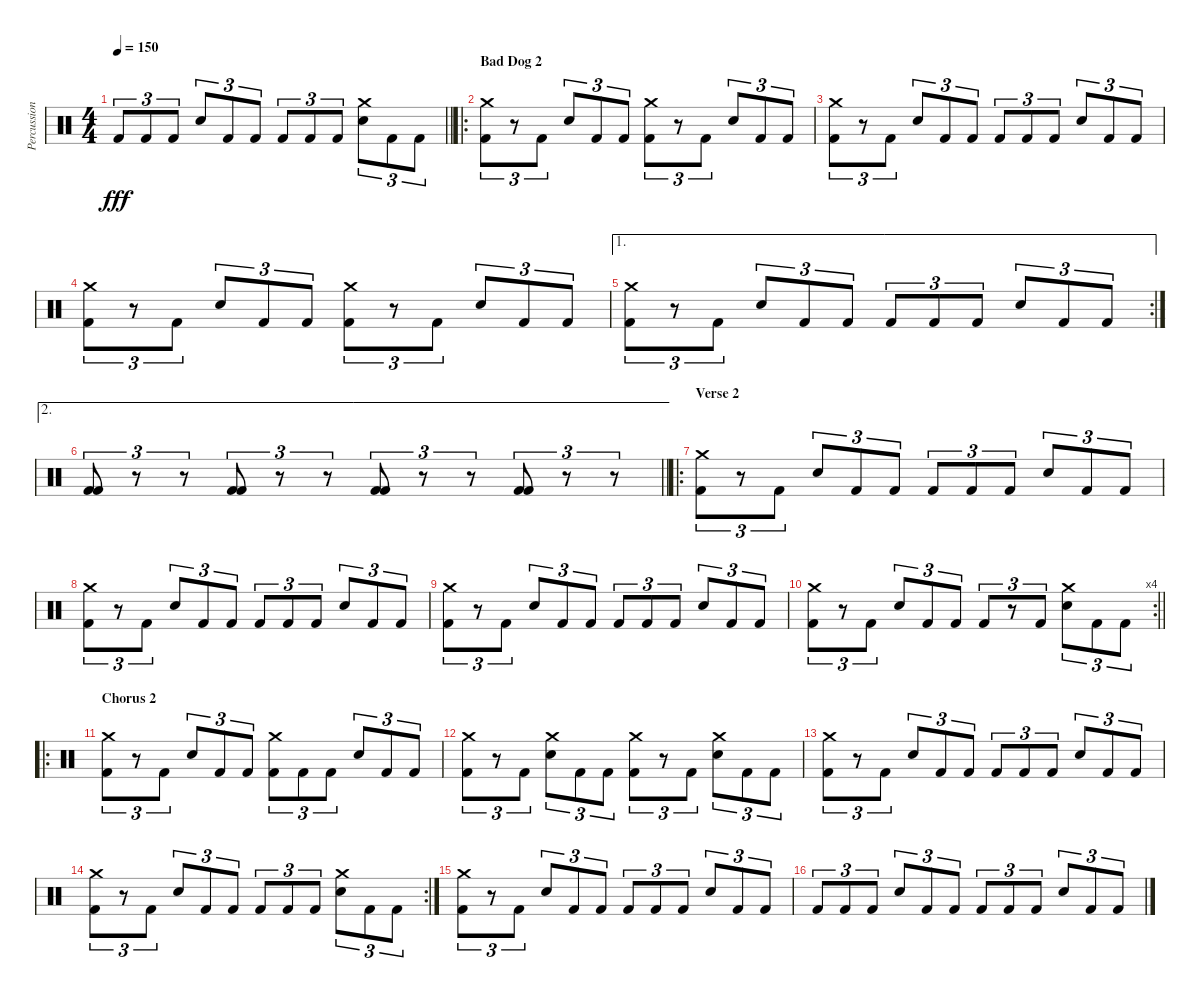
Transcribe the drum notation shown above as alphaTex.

\track ("Percussion" "Percussion") {instrument percussion}
\staff {score}
\articulation defaults
\ts (4 4)
\tempo 150
\clef neutral
\barLineRight lightlight
\ks c "Kick (hit) 2".8{tu (3 2) dy fff} "Kick (hit) 2".8{tu (3 2)} "Kick (hit) 2".8{tu (3 2)} "Snare (hit) 2".8{tu (3 2)} "Kick (hit) 2".8{tu (3 2)} "Kick (hit) 2".8{tu (3 2)} "Kick (hit) 2".8{tu (3 2)} "Kick (hit) 2".8{tu (3 2)} "Kick (hit) 2".8{tu (3 2)}
("Crash medium (hit)" "Snare (hit) 2").8{tu (3 2)} "Kick (hit) 2".8{tu (3 2)} "Kick (hit) 2".8{tu (3 2)} |
\ro
\section ("" "Bad Dog 2")
("Crash medium (hit)" "Kick (hit) 2").8{tu (3 2)} r.8{tu (3 2)} "Kick (hit) 2".8{tu (3 2)} "Snare (hit) 2".8{tu (3 2)} "Kick (hit) 2".8{tu (3 2)} "Kick (hit) 2".8{tu (3 2)} ("Crash medium (hit)" "Kick (hit) 2").8{tu (3 2)} r.8{tu (3 2)} "Kick (hit) 2".8{tu (3 2)} "Snare (hit) 2".8{tu (3 2)} "Kick (hit) 2".8{tu (3 2)} "Kick (hit) 2".8{tu (3 2)} |
("Crash medium (hit)" "Kick (hit) 2").8{tu (3 2)} r.8{tu (3 2)} "Kick (hit) 2".8{tu (3 2)} "Snare (hit) 2".8{tu (3 2)} "Kick (hit) 2".8{tu (3 2)} "Kick (hit) 2".8{tu (3 2)} "Kick (hit) 2".8{tu (3 2)} "Kick (hit) 2".8{tu (3 2)} "Kick (hit) 2".8{tu (3 2)} "Snare (hit) 2".8{tu (3 2)} "Kick (hit) 2".8{tu (3 2)} "Kick (hit) 2".8{tu (3 2)} |
("Crash medium (hit)" "Kick (hit) 2").8{tu (3 2)} r.8{tu (3 2)} "Kick (hit) 2".8{tu (3 2)} "Snare (hit) 2".8{tu (3 2)} "Kick (hit) 2".8{tu (3 2)} "Kick (hit) 2".8{tu (3 2)} ("Crash medium (hit)" "Kick (hit) 2").8{tu (3 2)} r.8{tu (3 2)} "Kick (hit) 2".8{tu (3 2)} "Snare (hit) 2".8{tu (3 2)} "Kick (hit) 2".8{tu (3 2)} "Kick (hit) 2".8{tu (3 2)} |
\ae 1
\rc 2
("Crash medium (hit)" "Kick (hit) 2").8{tu (3 2)} r.8{tu (3 2)} "Kick (hit) 2".8{tu (3 2)} "Snare (hit) 2".8{tu (3 2)} "Kick (hit) 2".8{tu (3 2)} "Kick (hit) 2".8{tu (3 2)} "Kick (hit) 2".8{tu (3 2)} "Kick (hit) 2".8{tu (3 2)} "Kick (hit) 2".8{tu (3 2)} "Snare (hit) 2".8{tu (3 2)} "Kick (hit) 2".8{tu (3 2)} "Kick (hit) 2".8{tu (3 2)} |
\ae 2
\barLineRight lightlight
("Kick (hit) 2" "Kick (hit) 2").8{tu (3 2)} r.8{tu (3 2)} r.8{tu (3 2)} ("Kick (hit) 2" "Kick (hit) 2").8{tu (3 2)} r.8{tu (3 2)} r.8{tu (3 2)} ("Kick (hit) 2" "Kick (hit) 2").8{tu (3 2)} r.8{tu (3 2)} r.8{tu (3 2)} ("Kick (hit) 2" "Kick (hit) 2").8{tu (3 2)} r.8{tu (3 2)} r.8{tu (3 2)} |
\ro
\section ("" "Verse 2")
("Crash medium (hit)" "Kick (hit) 2").8{tu (3 2)} r.8{tu (3 2)} "Kick (hit) 2".8{tu (3 2)} "Snare (hit) 2".8{tu (3 2)} "Kick (hit) 2".8{tu (3 2)} "Kick (hit) 2".8{tu (3 2)} "Kick (hit) 2".8{tu (3 2)} "Kick (hit) 2".8{tu (3 2)} "Kick (hit) 2".8{tu (3 2)} "Snare (hit) 2".8{tu (3 2)} "Kick (hit) 2".8{tu (3 2)} "Kick (hit) 2".8{tu (3 2)} |
("Crash medium (hit)" "Kick (hit) 2").8{tu (3 2)} r.8{tu (3 2)} "Kick (hit) 2".8{tu (3 2)} "Snare (hit) 2".8{tu (3 2)} "Kick (hit) 2".8{tu (3 2)} "Kick (hit) 2".8{tu (3 2)} "Kick (hit) 2".8{tu (3 2)} "Kick (hit) 2".8{tu (3 2)} "Kick (hit) 2".8{tu (3 2)} "Snare (hit) 2".8{tu (3 2)} "Kick (hit) 2".8{tu (3 2)} "Kick (hit) 2".8{tu (3 2)} |
("Crash medium (hit)" "Kick (hit) 2").8{tu (3 2)} r.8{tu (3 2)} "Kick (hit) 2".8{tu (3 2)} "Snare (hit) 2".8{tu (3 2)} "Kick (hit) 2".8{tu (3 2)} "Kick (hit) 2".8{tu (3 2)} "Kick (hit) 2".8{tu (3 2)} "Kick (hit) 2".8{tu (3 2)} "Kick (hit) 2".8{tu (3 2)} "Snare (hit) 2".8{tu (3 2)} "Kick (hit) 2".8{tu (3 2)} "Kick (hit) 2".8{tu (3 2)} |
\rc 4
\barLineRight lightlight
("Crash medium (hit)" "Kick (hit) 2").8{tu (3 2)} r.8{tu (3 2)} "Kick (hit) 2".8{tu (3 2)} "Snare (hit) 2".8{tu (3 2)} "Kick (hit) 2".8{tu (3 2)} "Kick (hit) 2".8{tu (3 2)} "Kick (hit) 2".8{tu (3 2)} r.8{tu (3 2)} "Kick (hit) 2".8{tu (3 2)} ("Crash medium (hit)" "Snare (hit) 2").8{tu (3 2)} "Kick (hit) 2".8{tu (3 2)} "Kick (hit) 2".8{tu (3 2)} |
\ro
\section ("" "Chorus 2")
("Crash medium (hit)" "Kick (hit) 2").8{tu (3 2)} r.8{tu (3 2)} "Kick (hit) 2".8{tu (3 2)} "Snare (hit) 2".8{tu (3 2)} "Kick (hit) 2".8{tu (3 2)} "Kick (hit) 2".8{tu (3 2)} ("Crash medium (hit)" "Kick (hit) 2").8{tu (3 2)} "Kick (hit) 2".8{tu (3 2)} "Kick (hit) 2".8{tu (3 2)} "Snare (hit) 2".8{tu (3 2)} "Kick (hit) 2".8{tu (3 2)} "Kick (hit) 2".8{tu (3 2)} |
("Crash medium (hit)" "Kick (hit) 2").8{tu (3 2)} r.8{tu (3 2)} "Kick (hit) 2".8{tu (3 2)} ("Crash medium (hit)" "Snare (hit) 2").8{tu (3 2)} "Kick (hit) 2".8{tu (3 2)} "Kick (hit) 2".8{tu (3 2)} ("Crash medium (hit)" "Kick (hit) 2").8{tu (3 2)} r.8{tu (3 2)} "Kick (hit) 2".8{tu (3 2)} ("Crash medium (hit)" "Snare (hit) 2").8{tu (3 2)} "Kick (hit) 2".8{tu (3 2)} "Kick (hit) 2".8{tu (3 2)} |
("Crash medium (hit)" "Kick (hit) 2").8{tu (3 2)} r.8{tu (3 2)} "Kick (hit) 2".8{tu (3 2)} "Snare (hit) 2".8{tu (3 2)} "Kick (hit) 2".8{tu (3 2)} "Kick (hit) 2".8{tu (3 2)} "Kick (hit) 2".8{tu (3 2)} "Kick (hit) 2".8{tu (3 2)} "Kick (hit) 2".8{tu (3 2)} "Snare (hit) 2".8{tu (3 2)} "Kick (hit) 2".8{tu (3 2)} "Kick (hit) 2".8{tu (3 2)} |
\rc 2
("Crash medium (hit)" "Kick (hit) 2").8{tu (3 2)} r.8{tu (3 2)} "Kick (hit) 2".8{tu (3 2)} "Snare (hit) 2".8{tu (3 2)} "Kick (hit) 2".8{tu (3 2)} "Kick (hit) 2".8{tu (3 2)} "Kick (hit) 2".8{tu (3 2)} "Kick (hit) 2".8{tu (3 2)} "Kick (hit) 2".8{tu (3 2)} ("Crash medium (hit)" "Snare (hit) 2").8{tu (3 2)} "Kick (hit) 2".8{tu (3 2)} "Kick (hit) 2".8{tu (3 2)} |
("Crash medium (hit)" "Kick (hit) 2").8{tu (3 2)} r.8{tu (3 2)} "Kick (hit) 2".8{tu (3 2)} "Snare (hit) 2".8{tu (3 2)} "Kick (hit) 2".8{tu (3 2)} "Kick (hit) 2".8{tu (3 2)} "Kick (hit) 2".8{tu (3 2)} "Kick (hit) 2".8{tu (3 2)} "Kick (hit) 2".8{tu (3 2)} "Snare (hit) 2".8{tu (3 2)} "Kick (hit) 2".8{tu (3 2)} "Kick (hit) 2".8{tu (3 2)} |
"Kick (hit) 2".8{tu (3 2)} "Kick (hit) 2".8{tu (3 2)} "Kick (hit) 2".8{tu (3 2)} "Snare (hit) 2".8{tu (3 2)} "Kick (hit) 2".8{tu (3 2)} "Kick (hit) 2".8{tu (3 2)} "Kick (hit) 2".8{tu (3 2)} "Kick (hit) 2".8{tu (3 2)} "Kick (hit) 2".8{tu (3 2)} "Snare (hit) 2".8{tu (3 2)} "Kick (hit) 2".8{tu (3 2)} "Kick (hit) 2".8{tu (3 2)}
